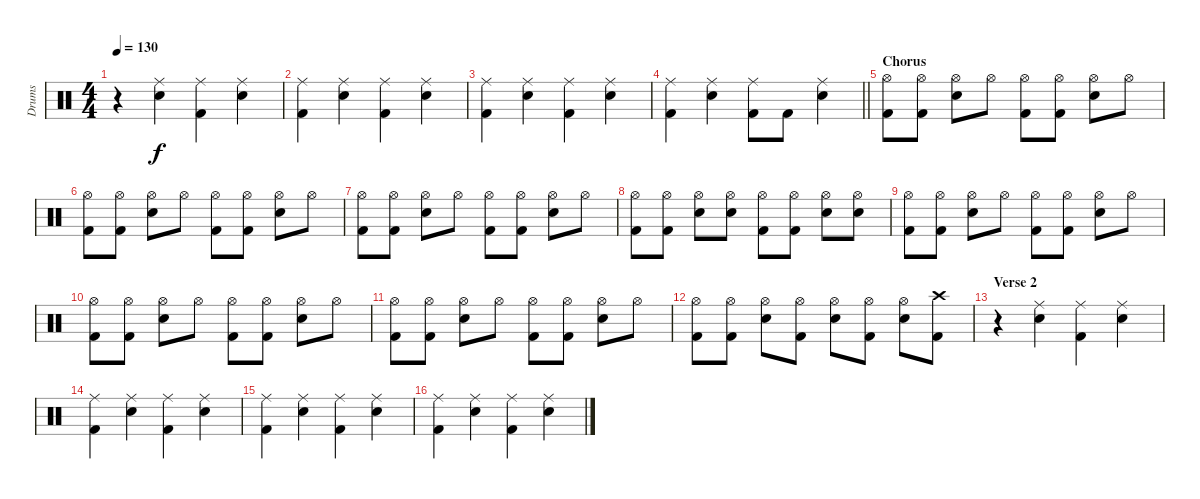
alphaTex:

\track ("Drums" "Drums") {instrument percussion}
\staff {score}
\articulation defaults
\ts (4 4)
\tempo 130
\clef neutral
\ks c
r.4{dy f} ("Ride (middle)" "Electric Snare (hit)").4 ("Ride (middle)" "Kick (hit) 2").4 ("Ride (middle)" "Electric Snare (hit)").4 |
("Ride (middle)" "Kick (hit) 2").4 ("Ride (middle)" "Electric Snare (hit)").4 ("Ride (middle)" "Kick (hit) 2").4 ("Ride (middle)" "Electric Snare (hit)").4 |
("Ride (middle)" "Kick (hit) 2").4 ("Ride (middle)" "Electric Snare (hit)").4 ("Ride (middle)" "Kick (hit) 2").4 ("Ride (middle)" "Electric Snare (hit)").4 |
\barLineRight lightlight
("Ride (middle)" "Kick (hit) 2").4 ("Ride (middle)" "Electric Snare (hit)").4 ("Ride (middle)" "Kick (hit) 2").8 "Kick (hit) 2".8 ("Ride (middle)" "Electric Snare (hit)").4 |
\section ("" "Chorus")
("Hi-Hat (open)" "Kick (hit) 2").8 ("Hi-Hat (open)" "Kick (hit) 2").8 ("Hi-Hat (open)" "Electric Snare (hit)").8 "Hi-Hat (open)".8 ("Hi-Hat (open)" "Kick (hit) 2").8 ("Hi-Hat (open)" "Kick (hit) 2").8 ("Hi-Hat (open)" "Electric Snare (hit)").8 "Hi-Hat (open)".8 |
("Hi-Hat (open)" "Kick (hit) 2").8 ("Hi-Hat (open)" "Kick (hit) 2").8 ("Hi-Hat (open)" "Electric Snare (hit)").8 "Hi-Hat (open)".8 ("Hi-Hat (open)" "Kick (hit) 2").8 ("Hi-Hat (open)" "Kick (hit) 2").8 ("Hi-Hat (open)" "Electric Snare (hit)").8 "Hi-Hat (open)".8 |
("Hi-Hat (open)" "Kick (hit) 2").8 ("Hi-Hat (open)" "Kick (hit) 2").8 ("Hi-Hat (open)" "Electric Snare (hit)").8 "Hi-Hat (open)".8 ("Hi-Hat (open)" "Kick (hit) 2").8 ("Hi-Hat (open)" "Kick (hit) 2").8 ("Hi-Hat (open)" "Electric Snare (hit)").8 "Hi-Hat (open)".8 |
("Hi-Hat (open)" "Kick (hit) 2").8 ("Hi-Hat (open)" "Kick (hit) 2").8 ("Hi-Hat (open)" "Electric Snare (hit)").8 ("Hi-Hat (open)" "Electric Snare (hit)").8 ("Hi-Hat (open)" "Kick (hit) 2").8 ("Hi-Hat (open)" "Kick (hit) 2").8 ("Hi-Hat (open)" "Electric Snare (hit)").8 ("Hi-Hat (open)" "Electric Snare (hit)").8 |
("Hi-Hat (open)" "Kick (hit) 2").8 ("Hi-Hat (open)" "Kick (hit) 2").8 ("Hi-Hat (open)" "Electric Snare (hit)").8 "Hi-Hat (open)".8 ("Hi-Hat (open)" "Kick (hit) 2").8 ("Hi-Hat (open)" "Kick (hit) 2").8 ("Hi-Hat (open)" "Electric Snare (hit)").8 "Hi-Hat (open)".8 |
("Hi-Hat (open)" "Kick (hit) 2").8 ("Hi-Hat (open)" "Kick (hit) 2").8 ("Hi-Hat (open)" "Electric Snare (hit)").8 "Hi-Hat (open)".8 ("Hi-Hat (open)" "Kick (hit) 2").8 ("Hi-Hat (open)" "Kick (hit) 2").8 ("Hi-Hat (open)" "Electric Snare (hit)").8 "Hi-Hat (open)".8 |
("Hi-Hat (open)" "Kick (hit) 2").8 ("Hi-Hat (open)" "Kick (hit) 2").8 ("Hi-Hat (open)" "Electric Snare (hit)").8 "Hi-Hat (open)".8 ("Hi-Hat (open)" "Kick (hit) 2").8 ("Hi-Hat (open)" "Kick (hit) 2").8 ("Hi-Hat (open)" "Electric Snare (hit)").8 "Hi-Hat (open)".8 |
("Hi-Hat (open)" "Kick (hit) 2").8 ("Hi-Hat (open)" "Kick (hit) 2").8 ("Hi-Hat (open)" "Electric Snare (hit)").8 ("Hi-Hat (open)" "Kick (hit) 2").8 ("Hi-Hat (open)" "Electric Snare (hit)").8 ("Hi-Hat (open)" "Kick (hit) 2").8 ("Hi-Hat (open)" "Electric Snare (hit)").8 ("Crash high (hit)" "Kick (hit) 2").8 |
\section ("" "Verse 2")
r.4 ("Ride (middle)" "Electric Snare (hit)").4 ("Ride (middle)" "Kick (hit) 2").4 ("Ride (middle)" "Electric Snare (hit)").4 |
("Ride (middle)" "Kick (hit) 2").4 ("Ride (middle)" "Electric Snare (hit)").4 ("Ride (middle)" "Kick (hit) 2").4 ("Ride (middle)" "Electric Snare (hit)").4 |
("Ride (middle)" "Kick (hit) 2").4 ("Ride (middle)" "Electric Snare (hit)").4 ("Ride (middle)" "Kick (hit) 2").4 ("Ride (middle)" "Electric Snare (hit)").4 |
("Ride (middle)" "Kick (hit) 2").4 ("Ride (middle)" "Electric Snare (hit)").4 ("Ride (middle)" "Kick (hit) 2").4 ("Ride (middle)" "Electric Snare (hit)").4
